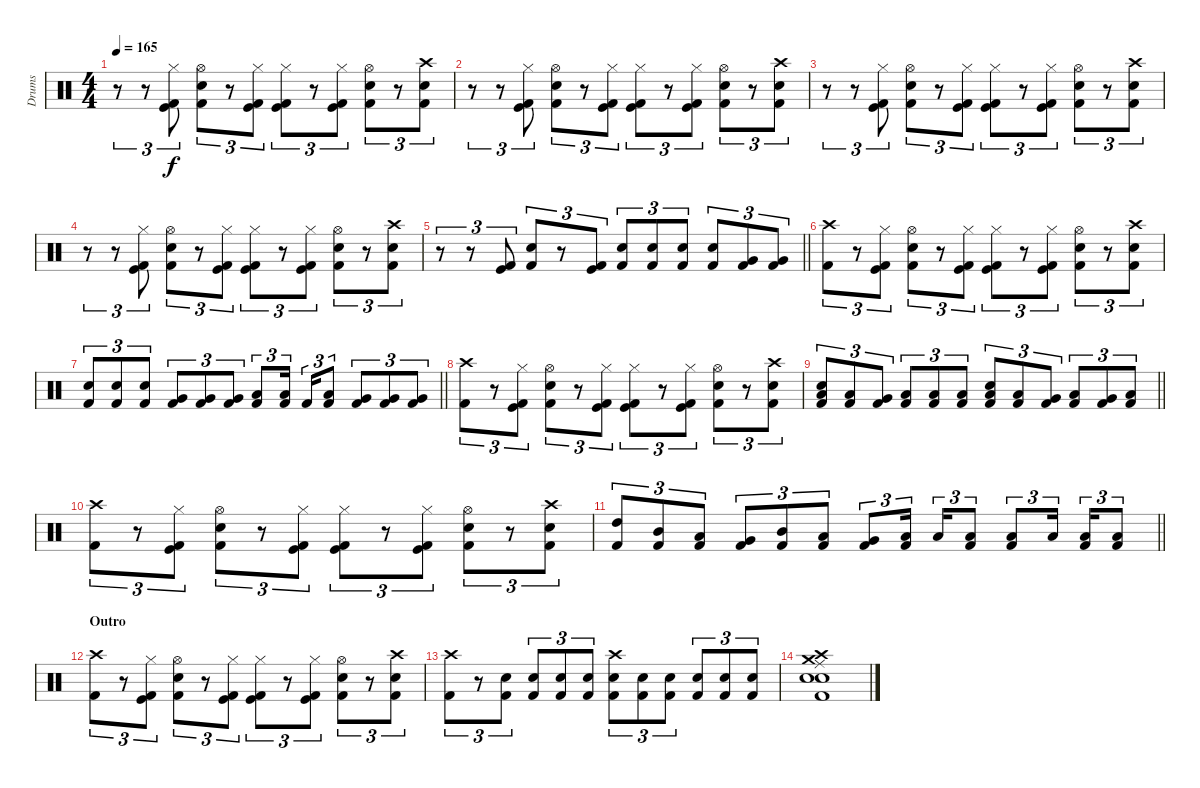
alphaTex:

\track ("Drums" "Drums") {instrument percussion}
\staff {score}
\articulation defaults
\ts (4 4)
\tempo 165
\clef neutral
\ks c
r.8{tu (3 2) dy f} r.8{tu (3 2)} ("Kick (hit)" "Kick (hit) 2" "Hi-Hat (closed)").8{tu (3 2)} ("Snare (hit) 2" "Kick (hit) 2" "Hi-Hat (open)").8{tu (3 2)} r.8{tu (3 2)} ("Kick (hit)" "Kick (hit) 2" "Hi-Hat (closed)").8{tu (3 2)} ("Kick (hit)" "Kick (hit) 2" "Hi-Hat (closed)").8{tu (3 2)} r.8{tu (3 2)} ("Kick (hit)" "Kick (hit) 2" "Hi-Hat (closed)").8{tu (3 2)} ("Snare (hit) 2" "Kick (hit) 2" "Hi-Hat (open)").8{tu (3 2)} r.8{tu (3 2)} ("Snare (hit) 2" "Kick (hit) 2" "Crash high (hit)").8{tu (3 2)} |
r.8{tu (3 2)} r.8{tu (3 2)} ("Kick (hit)" "Kick (hit) 2" "Hi-Hat (closed)").8{tu (3 2)} ("Snare (hit) 2" "Kick (hit) 2" "Hi-Hat (open)").8{tu (3 2)} r.8{tu (3 2)} ("Kick (hit)" "Kick (hit) 2" "Hi-Hat (closed)").8{tu (3 2)} ("Kick (hit)" "Kick (hit) 2" "Hi-Hat (closed)").8{tu (3 2)} r.8{tu (3 2)} ("Kick (hit)" "Kick (hit) 2" "Hi-Hat (closed)").8{tu (3 2)} ("Snare (hit) 2" "Kick (hit) 2" "Hi-Hat (open)").8{tu (3 2)} r.8{tu (3 2)} ("Snare (hit) 2" "Kick (hit) 2" "Crash high (hit)").8{tu (3 2)} |
r.8{tu (3 2)} r.8{tu (3 2)} ("Kick (hit)" "Kick (hit) 2" "Hi-Hat (closed)").8{tu (3 2)} ("Snare (hit) 2" "Kick (hit) 2" "Hi-Hat (open)").8{tu (3 2)} r.8{tu (3 2)} ("Kick (hit)" "Kick (hit) 2" "Hi-Hat (closed)").8{tu (3 2)} ("Kick (hit)" "Kick (hit) 2" "Hi-Hat (closed)").8{tu (3 2)} r.8{tu (3 2)} ("Kick (hit)" "Kick (hit) 2" "Hi-Hat (closed)").8{tu (3 2)} ("Snare (hit) 2" "Kick (hit) 2" "Hi-Hat (open)").8{tu (3 2)} r.8{tu (3 2)} ("Snare (hit) 2" "Kick (hit) 2" "Crash high (hit)").8{tu (3 2)} |
r.8{tu (3 2)} r.8{tu (3 2)} ("Kick (hit)" "Kick (hit) 2" "Hi-Hat (closed)").8{tu (3 2)} ("Snare (hit) 2" "Kick (hit) 2" "Hi-Hat (open)").8{tu (3 2)} r.8{tu (3 2)} ("Kick (hit)" "Kick (hit) 2" "Hi-Hat (closed)").8{tu (3 2)} ("Kick (hit)" "Kick (hit) 2" "Hi-Hat (closed)").8{tu (3 2)} r.8{tu (3 2)} ("Kick (hit)" "Kick (hit) 2" "Hi-Hat (closed)").8{tu (3 2)} ("Snare (hit) 2" "Kick (hit) 2" "Hi-Hat (open)").8{tu (3 2)} r.8{tu (3 2)} ("Snare (hit) 2" "Kick (hit) 2" "Crash high (hit)").8{tu (3 2)} |
\barLineRight lightlight
r.8{tu (3 2)} r.8{tu (3 2)} ("Kick (hit)" "Kick (hit) 2").8{tu (3 2)} ("Snare (hit) 2" "Kick (hit) 2").8{tu (3 2)} r.8{tu (3 2)} ("Kick (hit)" "Kick (hit) 2").8{tu (3 2)} ("Snare (hit) 2" "Kick (hit) 2").8{tu (3 2)} ("Snare (hit) 2" "Kick (hit) 2").8{tu (3 2)} ("Snare (hit) 2" "Kick (hit) 2").8{tu (3 2)} ("Snare (hit) 2" "Kick (hit) 2").8{tu (3 2)} ("Very Low Tom (hit)" "Kick (hit) 2").8{tu (3 2)} ("Very Low Tom (hit)" "Kick (hit) 2").8{tu (3 2)} |
("Kick (hit) 2" "Crash high (hit)").8{tu (3 2)} r.8{tu (3 2)} ("Kick (hit)" "Kick (hit) 2" "Hi-Hat (closed)").8{tu (3 2)} ("Snare (hit) 2" "Kick (hit) 2" "Hi-Hat (open)").8{tu (3 2)} r.8{tu (3 2)} ("Kick (hit)" "Kick (hit) 2" "Hi-Hat (closed)").8{tu (3 2)} ("Kick (hit)" "Kick (hit) 2" "Hi-Hat (closed)").8{tu (3 2)} r.8{tu (3 2)} ("Kick (hit)" "Kick (hit) 2" "Hi-Hat (closed)").8{tu (3 2)} ("Snare (hit) 2" "Kick (hit) 2" "Hi-Hat (open)").8{tu (3 2)} r.8{tu (3 2)} ("Snare (hit) 2" "Kick (hit) 2" "Crash high (hit)").8{tu (3 2)} |
\barLineRight lightlight
("Snare (hit) 2" "Kick (hit) 2").8{tu (3 2)} ("Snare (hit) 2" "Kick (hit) 2").8{tu (3 2)} ("Snare (hit) 2" "Kick (hit) 2").8{tu (3 2)} ("Very Low Tom (hit)" "Kick (hit) 2").8{tu (3 2)} ("Very Low Tom (hit)" "Kick (hit) 2").8{tu (3 2)} ("Very Low Tom (hit)" "Kick (hit) 2").8{tu (3 2)} ("Low Floor Tom (hit)" "Kick (hit) 2").8{tu (3 2)} ("Low Floor Tom (hit)" "Kick (hit) 2").16{tu (3 2) beam splitsecondary} "Kick (hit) 2".16{tu (3 2)} ("Low Floor Tom (hit)" "Kick (hit) 2").8{tu (3 2)} ("Very Low Tom (hit)" "Kick (hit) 2").8{tu (3 2)} ("Very Low Tom (hit)" "Kick (hit) 2").8{tu (3 2)} ("Very Low Tom (hit)" "Kick (hit) 2").8{tu (3 2)} |
("Kick (hit) 2" "Crash high (hit)").8{tu (3 2)} r.8{tu (3 2)} ("Kick (hit)" "Kick (hit) 2" "Hi-Hat (closed)").8{tu (3 2)} ("Snare (hit) 2" "Kick (hit) 2" "Hi-Hat (open)").8{tu (3 2)} r.8{tu (3 2)} ("Kick (hit)" "Kick (hit) 2" "Hi-Hat (closed)").8{tu (3 2)} ("Kick (hit)" "Kick (hit) 2" "Hi-Hat (closed)").8{tu (3 2)} r.8{tu (3 2)} ("Kick (hit)" "Kick (hit) 2" "Hi-Hat (closed)").8{tu (3 2)} ("Snare (hit) 2" "Kick (hit) 2" "Hi-Hat (open)").8{tu (3 2)} r.8{tu (3 2)} ("Snare (hit) 2" "Kick (hit) 2" "Crash high (hit)").8{tu (3 2)} |
\barLineRight lightlight
("Low Tom (hit)" "Snare (hit) 2" "Kick (hit) 2").8{tu (3 2)} ("Low Tom (hit)" "Kick (hit) 2").8{tu (3 2)} ("Very Low Tom (hit)" "Kick (hit) 2").8{tu (3 2)} ("Low Floor Tom (hit)" "Kick (hit) 2").8{tu (3 2)} ("Low Tom (hit)" "Kick (hit) 2").8{tu (3 2)} ("Low Floor Tom (hit)" "Kick (hit) 2").8{tu (3 2)} ("Low Tom (hit)" "Snare (hit) 2" "Kick (hit) 2").8{tu (3 2)} ("Low Tom (hit)" "Kick (hit) 2").8{tu (3 2)} ("Very Low Tom (hit)" "Kick (hit) 2").8{tu (3 2)} ("Low Floor Tom (hit)" "Kick (hit) 2").8{tu (3 2)} ("Very Low Tom (hit)" "Kick (hit) 2").8{tu (3 2)} ("Low Floor Tom (hit)" "Kick (hit) 2").8{tu (3 2)} |
("Kick (hit) 2" "Crash high (hit)").8{tu (3 2)} r.8{tu (3 2)} ("Kick (hit)" "Kick (hit) 2" "Hi-Hat (closed)").8{tu (3 2)} ("Snare (hit) 2" "Kick (hit) 2" "Hi-Hat (open)").8{tu (3 2)} r.8{tu (3 2)} ("Kick (hit)" "Kick (hit) 2" "Hi-Hat (closed)").8{tu (3 2)} ("Kick (hit)" "Kick (hit) 2" "Hi-Hat (closed)").8{tu (3 2)} r.8{tu (3 2)} ("Kick (hit)" "Kick (hit) 2" "Hi-Hat (closed)").8{tu (3 2)} ("Snare (hit) 2" "Kick (hit) 2" "Hi-Hat (open)").8{tu (3 2)} r.8{tu (3 2)} ("Snare (hit) 2" "Kick (hit) 2" "Crash high (hit)").8{tu (3 2)} |
\barLineRight lightlight
("High Tom (hit)" "Kick (hit) 2").8{tu (3 2)} ("Mid Tom (hit)" "Kick (hit) 2").8{tu (3 2)} ("Low Tom (hit)" "Kick (hit) 2").8{tu (3 2)} ("Very Low Tom (hit)" "Kick (hit) 2").8{tu (3 2)} ("Mid Tom (hit)" "Kick (hit) 2").8{tu (3 2)} ("Low Tom (hit)" "Kick (hit) 2").8{tu (3 2)} ("Very Low Tom (hit)" "Kick (hit) 2").8{tu (3 2)} ("Low Floor Tom (hit)" "Kick (hit) 2").16{tu (3 2) beam splitsecondary} "Low Floor Tom (hit)".16{tu (3 2)} ("Low Floor Tom (hit)" "Kick (hit) 2").8{tu (3 2)} ("Low Floor Tom (hit)" "Kick (hit) 2").8{tu (3 2)} "Low Floor Tom (hit)".16{tu (3 2) beam splitsecondary} ("Low Floor Tom (hit)" "Kick (hit) 2").16{tu (3 2)} ("Low Floor Tom (hit)" "Kick (hit) 2").8{tu (3 2)} |
\section ("" "Outro")
("Kick (hit) 2" "Crash high (hit)").8{tu (3 2)} r.8{tu (3 2)} ("Kick (hit)" "Kick (hit) 2" "Hi-Hat (closed)").8{tu (3 2)} ("Snare (hit) 2" "Kick (hit) 2" "Hi-Hat (open)").8{tu (3 2)} r.8{tu (3 2)} ("Kick (hit)" "Kick (hit) 2" "Hi-Hat (closed)").8{tu (3 2)} ("Kick (hit)" "Kick (hit) 2" "Hi-Hat (closed)").8{tu (3 2)} r.8{tu (3 2)} ("Kick (hit)" "Kick (hit) 2" "Hi-Hat (closed)").8{tu (3 2)} ("Snare (hit) 2" "Kick (hit) 2" "Hi-Hat (open)").8{tu (3 2)} r.8{tu (3 2)} ("Snare (hit) 2" "Kick (hit) 2" "Crash high (hit)").8{tu (3 2)} |
("Kick (hit) 2" "Crash high (hit)").8{tu (3 2)} r.8{tu (3 2)} ("Snare (hit) 2" "Kick (hit) 2").8{tu (3 2)} ("Snare (hit) 2" "Kick (hit) 2").8{tu (3 2)} ("Snare (hit) 2" "Kick (hit) 2").8{tu (3 2)} ("Snare (hit) 2" "Kick (hit) 2").8{tu (3 2)} ("Snare (hit) 2" "Kick (hit) 2" "Crash high (hit)").8{tu (3 2)} ("Snare (hit) 2" "Kick (hit) 2").8{tu (3 2)} ("Snare (hit) 2" "Kick (hit) 2").8{tu (3 2)} ("Snare (hit) 2" "Kick (hit) 2").8{tu (3 2)} ("Snare (hit) 2" "Kick (hit) 2").8{tu (3 2)} ("Snare (hit) 2" "Kick (hit) 2").8{tu (3 2)} |
("Ride (middle)" "Electric Snare (hit)" "Snare (hit) 2" "Kick (hit) 2" "Crash medium (hit)" "Crash high (hit)").1
